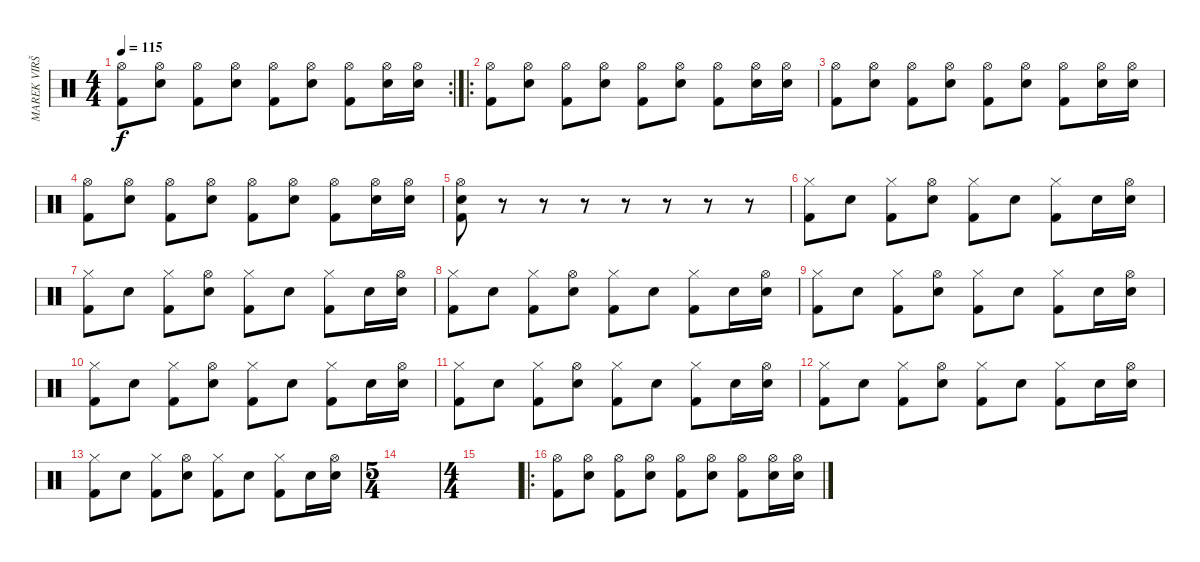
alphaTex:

\track ("MAREK VIRŠÍK" "MAREK VIRŠ") {instrument percussion}
\staff {score}
\articulation defaults
\rc 2
\ts (4 4)
\tempo 115
\clef neutral
\ks c
("Hi-Hat (open)" "Kick (hit) 2").8{dy f} ("Hi-Hat (open)" "Snare (hit) 2").8 ("Hi-Hat (open)" "Kick (hit) 2").8 ("Hi-Hat (open)" "Snare (hit) 2").8 ("Hi-Hat (open)" "Kick (hit) 2").8 ("Hi-Hat (open)" "Snare (hit) 2").8 ("Hi-Hat (open)" "Kick (hit) 2").8 ("Hi-Hat (open)" "Snare (hit) 2").16 ("Hi-Hat (open)" "Snare (hit) 2").16 |
\ro
("Hi-Hat (open)" "Kick (hit) 2").8 ("Hi-Hat (open)" "Snare (hit) 2").8 ("Hi-Hat (open)" "Kick (hit) 2").8 ("Hi-Hat (open)" "Snare (hit) 2").8 ("Hi-Hat (open)" "Kick (hit) 2").8 ("Hi-Hat (open)" "Snare (hit) 2").8 ("Hi-Hat (open)" "Kick (hit) 2").8 ("Hi-Hat (open)" "Snare (hit) 2").16 ("Hi-Hat (open)" "Snare (hit) 2").16 |
("Hi-Hat (open)" "Kick (hit) 2").8 ("Hi-Hat (open)" "Snare (hit) 2").8 ("Hi-Hat (open)" "Kick (hit) 2").8 ("Hi-Hat (open)" "Snare (hit) 2").8 ("Hi-Hat (open)" "Kick (hit) 2").8 ("Hi-Hat (open)" "Snare (hit) 2").8 ("Hi-Hat (open)" "Kick (hit) 2").8 ("Hi-Hat (open)" "Snare (hit) 2").16 ("Hi-Hat (open)" "Snare (hit) 2").16 |
("Hi-Hat (open)" "Kick (hit) 2").8 ("Hi-Hat (open)" "Snare (hit) 2").8 ("Hi-Hat (open)" "Kick (hit) 2").8 ("Hi-Hat (open)" "Snare (hit) 2").8 ("Hi-Hat (open)" "Kick (hit) 2").8 ("Hi-Hat (open)" "Snare (hit) 2").8 ("Hi-Hat (open)" "Kick (hit) 2").8 ("Hi-Hat (open)" "Snare (hit) 2").16 ("Hi-Hat (open)" "Snare (hit) 2").16 |
("Hi-Hat (open)" "Snare (hit) 2" "Kick (hit) 2").8 r.8 r.8 r.8 r.8 r.8 r.8 r.8 |
("Hi-Hat (closed)" "Kick (hit) 2").8 "Snare (hit) 2".8 ("Hi-Hat (closed)" "Kick (hit) 2").8 ("Hi-Hat (open)" "Snare (hit) 2").8 ("Hi-Hat (closed)" "Kick (hit) 2").8 "Snare (hit) 2".8 ("Hi-Hat (closed)" "Kick (hit) 2").8 "Snare (hit) 2".16 ("Hi-Hat (open)" "Snare (hit) 2").16 |
("Hi-Hat (closed)" "Kick (hit) 2").8 "Snare (hit) 2".8 ("Hi-Hat (closed)" "Kick (hit) 2").8 ("Hi-Hat (open)" "Snare (hit) 2").8 ("Hi-Hat (closed)" "Kick (hit) 2").8 "Snare (hit) 2".8 ("Hi-Hat (closed)" "Kick (hit) 2").8 "Snare (hit) 2".16 ("Hi-Hat (open)" "Snare (hit) 2").16 |
("Hi-Hat (closed)" "Kick (hit) 2").8 "Snare (hit) 2".8 ("Hi-Hat (closed)" "Kick (hit) 2").8 ("Hi-Hat (open)" "Snare (hit) 2").8 ("Hi-Hat (closed)" "Kick (hit) 2").8 "Snare (hit) 2".8 ("Hi-Hat (closed)" "Kick (hit) 2").8 "Snare (hit) 2".16 ("Hi-Hat (open)" "Snare (hit) 2").16 |
("Hi-Hat (closed)" "Kick (hit) 2").8 "Snare (hit) 2".8 ("Hi-Hat (closed)" "Kick (hit) 2").8 ("Hi-Hat (open)" "Snare (hit) 2").8 ("Hi-Hat (closed)" "Kick (hit) 2").8 "Snare (hit) 2".8 ("Hi-Hat (closed)" "Kick (hit) 2").8 "Snare (hit) 2".16 ("Hi-Hat (open)" "Snare (hit) 2").16 |
("Hi-Hat (closed)" "Kick (hit) 2").8 "Snare (hit) 2".8 ("Hi-Hat (closed)" "Kick (hit) 2").8 ("Hi-Hat (open)" "Snare (hit) 2").8 ("Hi-Hat (closed)" "Kick (hit) 2").8 "Snare (hit) 2".8 ("Hi-Hat (closed)" "Kick (hit) 2").8 "Snare (hit) 2".16 ("Hi-Hat (open)" "Snare (hit) 2").16 |
("Hi-Hat (closed)" "Kick (hit) 2").8 "Snare (hit) 2".8 ("Hi-Hat (closed)" "Kick (hit) 2").8 ("Hi-Hat (open)" "Snare (hit) 2").8 ("Hi-Hat (closed)" "Kick (hit) 2").8 "Snare (hit) 2".8 ("Hi-Hat (closed)" "Kick (hit) 2").8 "Snare (hit) 2".16 ("Hi-Hat (open)" "Snare (hit) 2").16 |
("Hi-Hat (closed)" "Kick (hit) 2").8 "Snare (hit) 2".8 ("Hi-Hat (closed)" "Kick (hit) 2").8 ("Hi-Hat (open)" "Snare (hit) 2").8 ("Hi-Hat (closed)" "Kick (hit) 2").8 "Snare (hit) 2".8 ("Hi-Hat (closed)" "Kick (hit) 2").8 "Snare (hit) 2".16 ("Hi-Hat (open)" "Snare (hit) 2").16 |
("Hi-Hat (closed)" "Kick (hit) 2").8 "Snare (hit) 2".8 ("Hi-Hat (closed)" "Kick (hit) 2").8 ("Hi-Hat (open)" "Snare (hit) 2").8 ("Hi-Hat (closed)" "Kick (hit) 2").8 "Snare (hit) 2".8 ("Hi-Hat (closed)" "Kick (hit) 2").8 "Snare (hit) 2".16 ("Hi-Hat (open)" "Snare (hit) 2").16 |
\ts (5 4)
|
\ts (4 4)
|
\ro
("Hi-Hat (open)" "Kick (hit) 2").8 ("Hi-Hat (open)" "Snare (hit) 2").8 ("Hi-Hat (open)" "Kick (hit) 2").8 ("Hi-Hat (open)" "Snare (hit) 2").8 ("Hi-Hat (open)" "Kick (hit) 2").8 ("Hi-Hat (open)" "Snare (hit) 2").8 ("Hi-Hat (open)" "Kick (hit) 2").8 ("Hi-Hat (open)" "Snare (hit) 2").16 ("Hi-Hat (open)" "Snare (hit) 2").16
